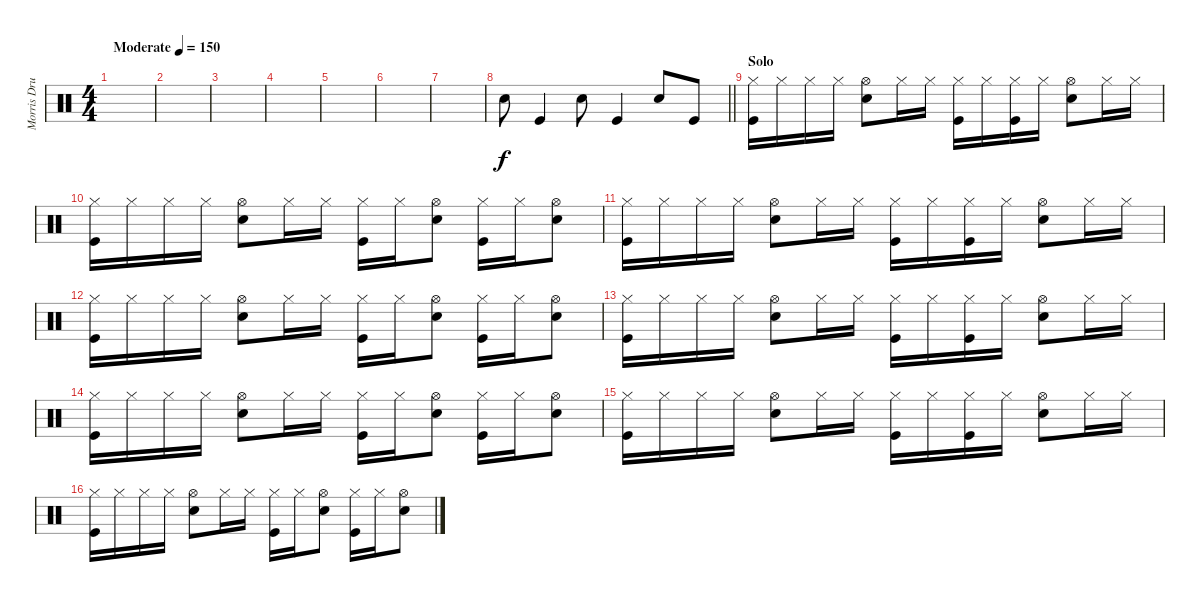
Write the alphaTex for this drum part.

\track ("Morris Drums" "Morris Dru") {instrument percussion}
\staff {score}
\articulation defaults
\ts (4 4)
\tempo (150 "Moderate")
\clef neutral
\ks c
|
|
|
|
|
|
|
\barLineRight lightlight "Snare (hit) 2".8 "Kick (hit)".4 "Snare (hit) 2".8 "Kick (hit)".4 "Snare (hit) 2".8 "Kick (hit)".8
|
\section ("" "Solo")
("Hi-Hat (closed)" "Kick (hit)").16 "Hi-Hat (closed)".16 "Hi-Hat (closed)".16 "Hi-Hat (closed)".16 ("Hi-Hat (open)" "Snare (hit) 2").8 "Hi-Hat (closed)".16 "Hi-Hat (closed)".16 ("Hi-Hat (closed)" "Kick (hit)").16 "Hi-Hat (closed)".16 ("Hi-Hat (closed)" "Kick (hit)").16 "Hi-Hat (closed)".16 ("Hi-Hat (open)" "Snare (hit) 2").8 "Hi-Hat (closed)".16 "Hi-Hat (closed)".16 |
("Hi-Hat (closed)" "Kick (hit)").16 "Hi-Hat (closed)".16 "Hi-Hat (closed)".16 "Hi-Hat (closed)".16 ("Hi-Hat (open)" "Snare (hit) 2").8 "Hi-Hat (closed)".16 "Hi-Hat (closed)".16 ("Hi-Hat (closed)" "Kick (hit)").16 "Hi-Hat (closed)".16 ("Hi-Hat (open)" "Snare (hit) 2").8 ("Hi-Hat (closed)" "Kick (hit)").16 "Hi-Hat (closed)".16 ("Hi-Hat (open)" "Snare (hit) 2").8 |
("Hi-Hat (closed)" "Kick (hit)").16 "Hi-Hat (closed)".16 "Hi-Hat (closed)".16 "Hi-Hat (closed)".16 ("Hi-Hat (open)" "Snare (hit) 2").8 "Hi-Hat (closed)".16 "Hi-Hat (closed)".16 ("Hi-Hat (closed)" "Kick (hit)").16 "Hi-Hat (closed)".16 ("Hi-Hat (closed)" "Kick (hit)").16 "Hi-Hat (closed)".16 ("Hi-Hat (open)" "Snare (hit) 2").8 "Hi-Hat (closed)".16 "Hi-Hat (closed)".16 |
("Hi-Hat (closed)" "Kick (hit)").16 "Hi-Hat (closed)".16 "Hi-Hat (closed)".16 "Hi-Hat (closed)".16 ("Hi-Hat (open)" "Snare (hit) 2").8 "Hi-Hat (closed)".16 "Hi-Hat (closed)".16 ("Hi-Hat (closed)" "Kick (hit)").16 "Hi-Hat (closed)".16 ("Hi-Hat (open)" "Snare (hit) 2").8 ("Hi-Hat (closed)" "Kick (hit)").16 "Hi-Hat (closed)".16 ("Hi-Hat (open)" "Snare (hit) 2").8 |
("Hi-Hat (closed)" "Kick (hit)").16 "Hi-Hat (closed)".16 "Hi-Hat (closed)".16 "Hi-Hat (closed)".16 ("Hi-Hat (open)" "Snare (hit) 2").8 "Hi-Hat (closed)".16 "Hi-Hat (closed)".16 ("Hi-Hat (closed)" "Kick (hit)").16 "Hi-Hat (closed)".16 ("Hi-Hat (closed)" "Kick (hit)").16 "Hi-Hat (closed)".16 ("Hi-Hat (open)" "Snare (hit) 2").8 "Hi-Hat (closed)".16 "Hi-Hat (closed)".16 |
("Hi-Hat (closed)" "Kick (hit)").16 "Hi-Hat (closed)".16 "Hi-Hat (closed)".16 "Hi-Hat (closed)".16 ("Hi-Hat (open)" "Snare (hit) 2").8 "Hi-Hat (closed)".16 "Hi-Hat (closed)".16 ("Hi-Hat (closed)" "Kick (hit)").16 "Hi-Hat (closed)".16 ("Hi-Hat (open)" "Snare (hit) 2").8 ("Hi-Hat (closed)" "Kick (hit)").16 "Hi-Hat (closed)".16 ("Hi-Hat (open)" "Snare (hit) 2").8 |
("Hi-Hat (closed)" "Kick (hit)").16 "Hi-Hat (closed)".16 "Hi-Hat (closed)".16 "Hi-Hat (closed)".16 ("Hi-Hat (open)" "Snare (hit) 2").8 "Hi-Hat (closed)".16 "Hi-Hat (closed)".16 ("Hi-Hat (closed)" "Kick (hit)").16 "Hi-Hat (closed)".16 ("Hi-Hat (closed)" "Kick (hit)").16 "Hi-Hat (closed)".16 ("Hi-Hat (open)" "Snare (hit) 2").8 "Hi-Hat (closed)".16 "Hi-Hat (closed)".16 |
("Hi-Hat (closed)" "Kick (hit)").16 "Hi-Hat (closed)".16 "Hi-Hat (closed)".16 "Hi-Hat (closed)".16 ("Hi-Hat (open)" "Snare (hit) 2").8 "Hi-Hat (closed)".16 "Hi-Hat (closed)".16 ("Hi-Hat (closed)" "Kick (hit)").16 "Hi-Hat (closed)".16 ("Hi-Hat (open)" "Snare (hit) 2").8 ("Hi-Hat (closed)" "Kick (hit)").16 "Hi-Hat (closed)".16 ("Hi-Hat (open)" "Snare (hit) 2").8
